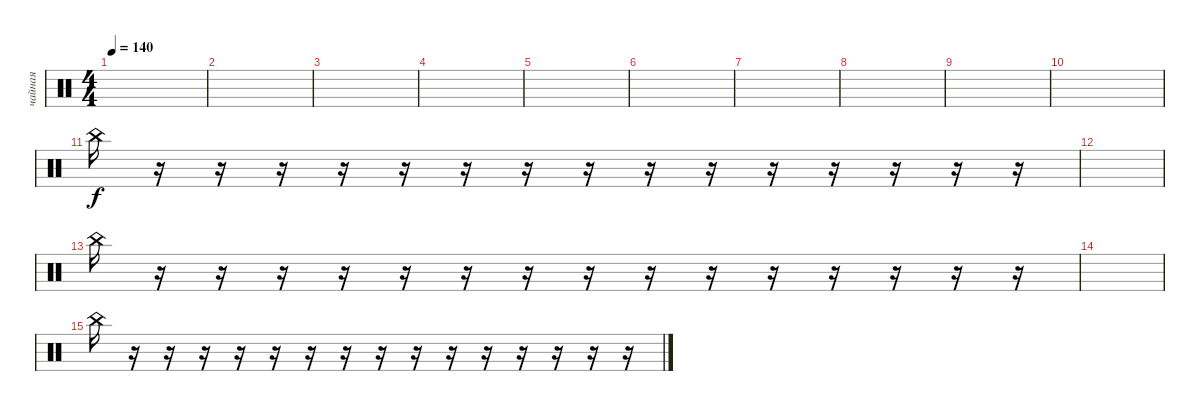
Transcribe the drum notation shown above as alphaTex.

\track ("чайная" "чайная") {mute instrument percussion}
\staff {score}
\articulation defaults
\ts (4 4)
\tempo 140
\clef neutral
\ks c
|
|
|
|
|
|
|
|
|
|
"China (hit)".16 r.16 r.16 r.16 r.16 r.16 r.16 r.16 r.16 r.16 r.16 r.16 r.16 r.16 r.16 r.16 |
|
"China (hit)".16 r.16 r.16 r.16 r.16 r.16 r.16 r.16 r.16 r.16 r.16 r.16 r.16 r.16 r.16 r.16 |
|
"China (hit)".16 r.16 r.16 r.16 r.16 r.16 r.16 r.16 r.16 r.16 r.16 r.16 r.16 r.16 r.16 r.16
